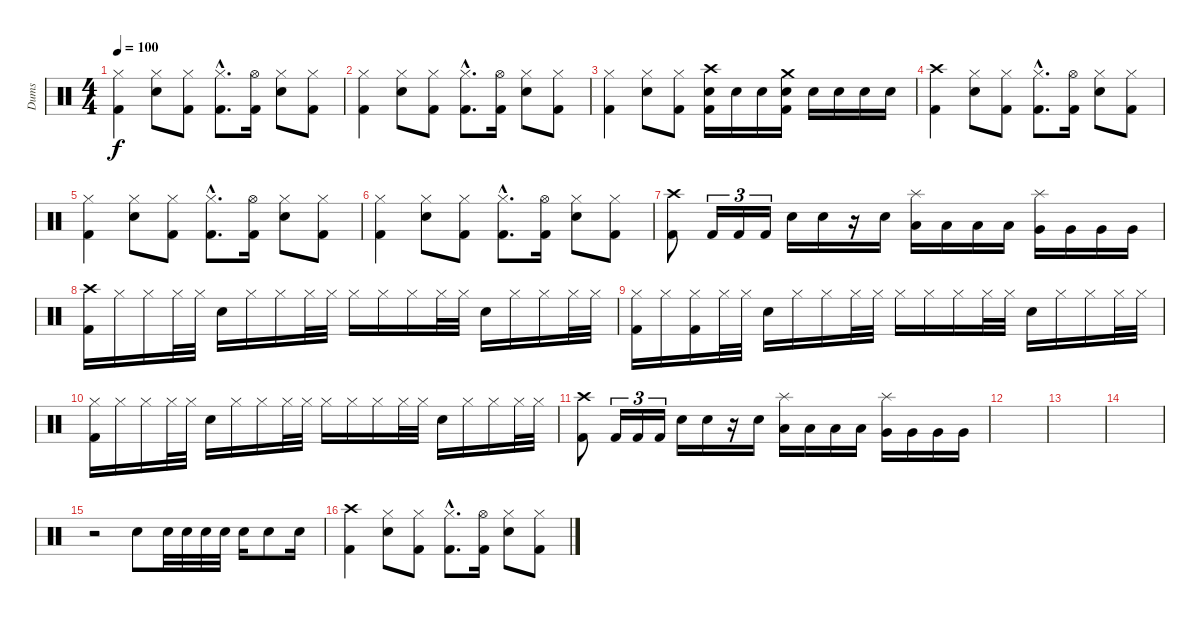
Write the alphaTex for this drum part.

\track ("Dums" "Dums") {instrument percussion}
\staff {score}
\articulation defaults
\ts (4 4)
\tempo 100
\clef neutral
\ks c
("Hi-Hat (closed)" "Kick (hit) 2").4{dy f} ("Hi-Hat (closed)" "Snare (hit) 2").8 ("Hi-Hat (closed)" "Kick (hit) 2").8 ("Hi-Hat (closed)"{hac} "Kick (hit) 2"{hac}).8{d} ("Hi-Hat (open)" "Kick (hit) 2").16 ("Hi-Hat (closed)" "Snare (hit) 2").8 ("Hi-Hat (closed)" "Kick (hit) 2").8 |
("Hi-Hat (closed)" "Kick (hit) 2").4 ("Hi-Hat (closed)" "Snare (hit) 2").8 ("Hi-Hat (closed)" "Kick (hit) 2").8 ("Hi-Hat (closed)"{hac} "Kick (hit) 2"{hac}).8{d} ("Hi-Hat (open)" "Kick (hit) 2").16 ("Hi-Hat (closed)" "Snare (hit) 2").8 ("Hi-Hat (closed)" "Kick (hit) 2").8 |
("Hi-Hat (closed)" "Kick (hit) 2").4 ("Hi-Hat (closed)" "Snare (hit) 2").8 ("Hi-Hat (closed)" "Kick (hit) 2").8 ("Kick (hit) 2" "Electric Snare (hit)" "Crash high (hit)").16 "Electric Snare (hit)".16 "Electric Snare (hit)".16 ("Kick (hit) 2" "Electric Snare (hit)" "Crash medium (hit)").16 "Electric Snare (hit)".16 "Electric Snare (hit)".16 "Electric Snare (hit)".16 "Electric Snare (hit)".16 |
("Crash high (hit)" "Kick (hit) 2").4 ("Hi-Hat (closed)" "Snare (hit) 2").8 ("Hi-Hat (closed)" "Kick (hit) 2").8 ("Hi-Hat (closed)"{hac} "Kick (hit) 2"{hac}).8{d} ("Hi-Hat (open)" "Kick (hit) 2").16 ("Hi-Hat (closed)" "Snare (hit) 2").8 ("Hi-Hat (closed)" "Kick (hit) 2").8 |
("Hi-Hat (closed)" "Kick (hit) 2").4 ("Hi-Hat (closed)" "Snare (hit) 2").8 ("Hi-Hat (closed)" "Kick (hit) 2").8 ("Hi-Hat (closed)"{hac} "Kick (hit) 2"{hac}).8{d} ("Hi-Hat (open)" "Kick (hit) 2").16 ("Hi-Hat (closed)" "Snare (hit) 2").8 ("Hi-Hat (closed)" "Kick (hit) 2").8 |
("Hi-Hat (closed)" "Kick (hit) 2").4 ("Hi-Hat (closed)" "Snare (hit) 2").8 ("Hi-Hat (closed)" "Kick (hit) 2").8 ("Hi-Hat (closed)"{hac} "Kick (hit) 2"{hac}).8{d} ("Hi-Hat (open)" "Kick (hit) 2").16 ("Hi-Hat (closed)" "Snare (hit) 2").8 ("Hi-Hat (closed)" "Kick (hit) 2").8 |
("Crash high (hit)" "Kick (hit) 2").8 "Kick (hit) 2".16{tu (3 2)} "Kick (hit) 2".16{tu (3 2)} "Kick (hit) 2".16{tu (3 2)} "Electric Snare (hit)".16 "Electric Snare (hit)".16 r.16 "Electric Snare (hit)".16 ("Splash (hit)" "Low Tom (hit)").16 "Low Tom (hit)".16 "Low Tom (hit)".16 "Low Tom (hit)".16 ("Splash (hit)" "Very Low Tom (hit)").16 "Very Low Tom (hit)".16 "Very Low Tom (hit)".16 "Very Low Tom (hit)".16 |
("Crash high (hit)" "Kick (hit) 2").16 "Hi-Hat (closed)".16 "Hi-Hat (closed)".16 "Hi-Hat (closed)".32 "Hi-Hat (closed)".32 "Electric Snare (hit)".16 "Hi-Hat (closed)".16 "Hi-Hat (closed)".16 "Hi-Hat (closed)".32 "Hi-Hat (closed)".32 "Hi-Hat (closed)".16 "Hi-Hat (closed)".16 "Hi-Hat (closed)".16 "Hi-Hat (closed)".32 "Hi-Hat (closed)".32 "Snare (hit) 2".16 "Hi-Hat (closed)".16 "Hi-Hat (closed)".16 "Hi-Hat (closed)".32 "Hi-Hat (closed)".32 |
("Hi-Hat (closed)" "Kick (hit) 2").16 "Hi-Hat (closed)".16 ("Hi-Hat (closed)" "Kick (hit) 2").16 "Hi-Hat (closed)".32 "Hi-Hat (closed)".32 "Electric Snare (hit)".16 "Hi-Hat (closed)".16 "Hi-Hat (closed)".16 "Hi-Hat (closed)".32 "Hi-Hat (closed)".32 "Hi-Hat (closed)".16 "Hi-Hat (closed)".16 "Hi-Hat (closed)".16 "Hi-Hat (closed)".32 "Hi-Hat (closed)".32 "Snare (hit) 2".16 "Hi-Hat (closed)".16 "Hi-Hat (closed)".16 "Hi-Hat (closed)".32 "Hi-Hat (closed)".32 |
("Hi-Hat (closed)" "Kick (hit) 2").16 "Hi-Hat (closed)".16 "Hi-Hat (closed)".16 "Hi-Hat (closed)".32 "Hi-Hat (closed)".32 "Electric Snare (hit)".16 "Hi-Hat (closed)".16 "Hi-Hat (closed)".16 "Hi-Hat (closed)".32 "Hi-Hat (closed)".32 "Hi-Hat (closed)".16 "Hi-Hat (closed)".16 "Hi-Hat (closed)".16 "Hi-Hat (closed)".32 "Hi-Hat (closed)".32 "Snare (hit) 2".16 "Hi-Hat (closed)".16 "Hi-Hat (closed)".16 "Hi-Hat (closed)".32 "Hi-Hat (closed)".32 |
("Crash high (hit)" "Kick (hit) 2").8 "Kick (hit) 2".16{tu (3 2)} "Kick (hit) 2".16{tu (3 2)} "Kick (hit) 2".16{tu (3 2)} "Electric Snare (hit)".16 "Electric Snare (hit)".16 r.16 "Electric Snare (hit)".16 ("Splash (hit)" "Low Tom (hit)").16 "Low Tom (hit)".16 "Low Tom (hit)".16 "Low Tom (hit)".16 ("Splash (hit)" "Very Low Tom (hit)").16 "Very Low Tom (hit)".16 "Very Low Tom (hit)".16 "Very Low Tom (hit)".16 |
|
|
|
r.2 "Electric Snare (hit)".8 "Electric Snare (hit)".32 "Electric Snare (hit)".32 "Electric Snare (hit)".32 "Electric Snare (hit)".32 "Electric Snare (hit)".16 "Electric Snare (hit)".8 "Electric Snare (hit)".16 |
("Crash high (hit)" "Kick (hit) 2").4 ("Hi-Hat (closed)" "Snare (hit) 2").8 ("Hi-Hat (closed)" "Kick (hit) 2").8 ("Hi-Hat (closed)"{hac} "Kick (hit) 2"{hac}).8{d} ("Hi-Hat (open)" "Kick (hit) 2").16 ("Hi-Hat (closed)" "Snare (hit) 2").8 ("Hi-Hat (closed)" "Kick (hit) 2").8
